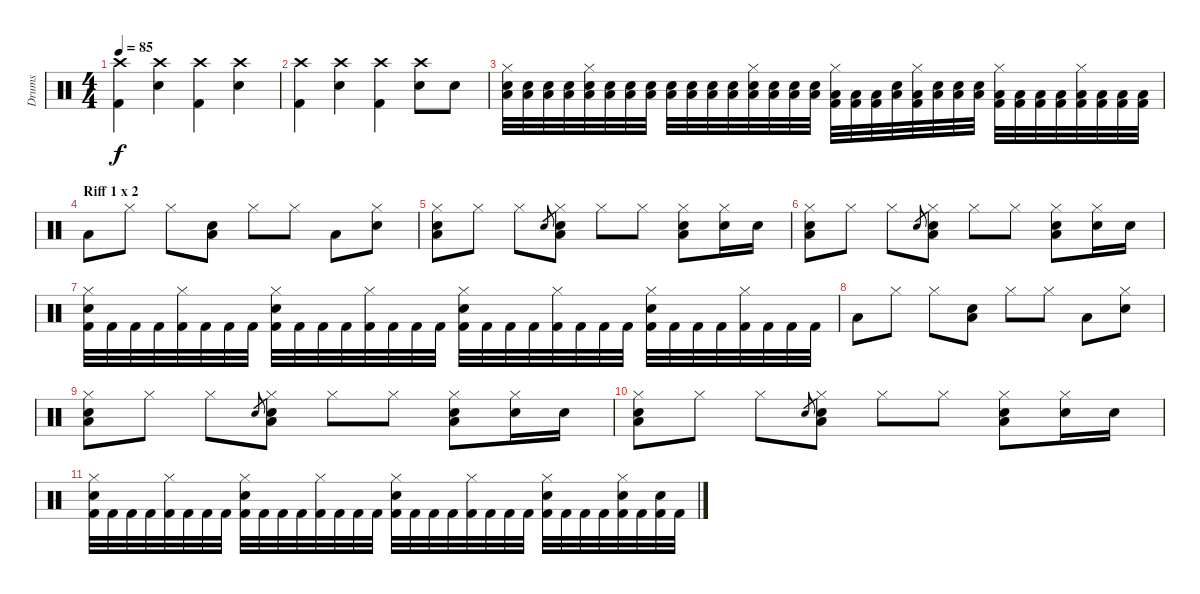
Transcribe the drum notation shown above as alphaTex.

\track ("Drums" "Drums") {instrument percussion}
\staff {score}
\articulation defaults
\ts (4 4)
\tempo 85
\clef neutral
\ks c
("Crash high (hit)" "Kick (hit) 2").4{dy f} ("Crash high (hit)" "Snare (hit) 2").4 ("Crash high (hit)" "Kick (hit) 2").4 ("Crash high (hit)" "Snare (hit) 2").4 |
("Crash high (hit)" "Kick (hit) 2").4 ("Crash high (hit)" "Snare (hit) 2").4 ("Crash high (hit)" "Kick (hit) 2").4 ("Crash high (hit)" "Snare (hit) 2").8 "Snare (hit) 2".8 |
("Low Tom (hit)" "Electric Snare (hit)" "Hi-Hat (closed)").32 ("Low Tom (hit)" "Electric Snare (hit)").32 ("Low Tom (hit)" "Electric Snare (hit)").32 ("Low Tom (hit)" "Electric Snare (hit)").32 ("Low Tom (hit)" "Snare (hit) 2" "Hi-Hat (closed)").32 ("Low Tom (hit)" "Snare (hit) 2").32 ("Low Tom (hit)" "Snare (hit) 2").32 ("Low Tom (hit)" "Snare (hit) 2").32 ("Low Tom (hit)" "Electric Snare (hit)").32 ("Low Tom (hit)" "Electric Snare (hit)").32 ("Low Tom (hit)" "Electric Snare (hit)").32 ("Low Tom (hit)" "Electric Snare (hit)").32 ("Low Tom (hit)" "Electric Snare (hit)" "Hi-Hat (closed)").32 ("Low Tom (hit)" "Snare (hit) 2").32 ("Low Tom (hit)" "Snare (hit) 2").32 ("Low Tom (hit)" "Snare (hit) 2").32 ("Low Tom (hit)" "Kick (hit) 2" "Hi-Hat (closed)").32 ("Low Tom (hit)" "Kick (hit) 2").32 ("Low Tom (hit)" "Kick (hit) 2").32 ("Low Tom (hit)" "Snare (hit) 2").32 ("Low Tom (hit)" "Kick (hit) 2" "Hi-Hat (closed)").32 ("Low Tom (hit)" "Electric Snare (hit)").32 ("Low Tom (hit)" "Electric Snare (hit)").32 ("Low Tom (hit)" "Electric Snare (hit)").32 ("Low Tom (hit)" "Kick (hit) 2" "Hi-Hat (closed)").32 ("Low Tom (hit)" "Kick (hit) 2").32 ("Low Tom (hit)" "Kick (hit) 2").32 ("Low Tom (hit)" "Kick (hit) 2").32 ("Low Tom (hit)" "Kick (hit) 2" "Hi-Hat (closed)").32 ("Low Tom (hit)" "Kick (hit) 2").32 ("Low Tom (hit)" "Kick (hit) 2").32 ("Low Tom (hit)" "Kick (hit) 2").32 |
\section ("" "Riff 1 x 2")
"Low Tom (hit)".8 "Hi-Hat (closed)".8 "Hi-Hat (closed)".8 ("Low Tom (hit)" "Snare (hit) 2").8 "Hi-Hat (closed)".8 "Hi-Hat (closed)".8 "Low Tom (hit)".8 ("Hi-Hat (closed)" "Snare (hit) 2").8 |
("Low Tom (hit)" "Snare (hit) 2" "Hi-Hat (closed)").8 "Hi-Hat (closed)".8 "Hi-Hat (closed)".8 "Snare (hit) 2".8{gr} ("Low Tom (hit)" "Snare (hit) 2" "Hi-Hat (closed)").8 "Hi-Hat (closed)".8 "Hi-Hat (closed)".8 ("Low Tom (hit)" "Snare (hit) 2" "Hi-Hat (closed)").8 ("Snare (hit) 2" "Hi-Hat (closed)").16 "Snare (hit) 2".16 |
("Low Tom (hit)" "Snare (hit) 2" "Hi-Hat (closed)").8 "Hi-Hat (closed)".8 "Hi-Hat (closed)".8 "Snare (hit) 2".8{gr} ("Low Tom (hit)" "Snare (hit) 2" "Hi-Hat (closed)").8 "Hi-Hat (closed)".8 "Hi-Hat (closed)".8 ("Low Tom (hit)" "Snare (hit) 2" "Hi-Hat (closed)").8 ("Snare (hit) 2" "Hi-Hat (closed)").16 "Snare (hit) 2".16 |
("Kick (hit) 2" "Snare (hit) 2" "Hi-Hat (closed)").32 "Kick (hit) 2".32 "Kick (hit) 2".32 "Kick (hit) 2".32 ("Kick (hit) 2" "Hi-Hat (closed)").32 "Kick (hit) 2".32 "Kick (hit) 2".32 "Kick (hit) 2".32 ("Kick (hit) 2" "Snare (hit) 2" "Hi-Hat (closed)").32 "Kick (hit) 2".32 "Kick (hit) 2".32 "Kick (hit) 2".32 ("Kick (hit) 2" "Hi-Hat (closed)").32 "Kick (hit) 2".32 "Kick (hit) 2".32 "Kick (hit) 2".32 ("Kick (hit) 2" "Snare (hit) 2" "Hi-Hat (closed)").32 "Kick (hit) 2".32 "Kick (hit) 2".32 "Kick (hit) 2".32 ("Kick (hit) 2" "Hi-Hat (closed)").32 "Kick (hit) 2".32 "Kick (hit) 2".32 "Kick (hit) 2".32 ("Kick (hit) 2" "Snare (hit) 2" "Hi-Hat (closed)").32 "Kick (hit) 2".32 "Kick (hit) 2".32 "Kick (hit) 2".32 ("Kick (hit) 2" "Hi-Hat (closed)").32 "Kick (hit) 2".32 "Kick (hit) 2".32 "Kick (hit) 2".32 |
"Low Tom (hit)".8 "Hi-Hat (closed)".8 "Hi-Hat (closed)".8 ("Low Tom (hit)" "Snare (hit) 2").8 "Hi-Hat (closed)".8 "Hi-Hat (closed)".8 "Low Tom (hit)".8 ("Hi-Hat (closed)" "Snare (hit) 2").8 |
("Low Tom (hit)" "Snare (hit) 2" "Hi-Hat (closed)").8 "Hi-Hat (closed)".8 "Hi-Hat (closed)".8 "Snare (hit) 2".8{gr} ("Low Tom (hit)" "Snare (hit) 2" "Hi-Hat (closed)").8 "Hi-Hat (closed)".8 "Hi-Hat (closed)".8 ("Low Tom (hit)" "Snare (hit) 2" "Hi-Hat (closed)").8 ("Snare (hit) 2" "Hi-Hat (closed)").16 "Snare (hit) 2".16 |
("Low Tom (hit)" "Snare (hit) 2" "Hi-Hat (closed)").8 "Hi-Hat (closed)".8 "Hi-Hat (closed)".8 "Snare (hit) 2".8{gr} ("Low Tom (hit)" "Snare (hit) 2" "Hi-Hat (closed)").8 "Hi-Hat (closed)".8 "Hi-Hat (closed)".8 ("Low Tom (hit)" "Snare (hit) 2" "Hi-Hat (closed)").8 ("Snare (hit) 2" "Hi-Hat (closed)").16 "Snare (hit) 2".16 |
("Kick (hit) 2" "Snare (hit) 2" "Hi-Hat (closed)").32 "Kick (hit) 2".32 "Kick (hit) 2".32 "Kick (hit) 2".32 ("Kick (hit) 2" "Hi-Hat (closed)").32 "Kick (hit) 2".32 "Kick (hit) 2".32 "Kick (hit) 2".32 ("Kick (hit) 2" "Snare (hit) 2" "Hi-Hat (closed)").32 "Kick (hit) 2".32 "Kick (hit) 2".32 "Kick (hit) 2".32 ("Kick (hit) 2" "Hi-Hat (closed)").32 "Kick (hit) 2".32 "Kick (hit) 2".32 "Kick (hit) 2".32 ("Kick (hit) 2" "Snare (hit) 2" "Hi-Hat (closed)").32 "Kick (hit) 2".32 "Kick (hit) 2".32 "Kick (hit) 2".32 ("Kick (hit) 2" "Hi-Hat (closed)").32 "Kick (hit) 2".32 "Kick (hit) 2".32 "Kick (hit) 2".32 ("Kick (hit) 2" "Snare (hit) 2" "Hi-Hat (closed)").32 "Kick (hit) 2".32 "Kick (hit) 2".32 "Kick (hit) 2".32 ("Kick (hit) 2" "Snare (hit) 2" "Hi-Hat (closed)").32 "Kick (hit) 2".32 ("Kick (hit) 2" "Snare (hit) 2").32 "Kick (hit) 2".32
